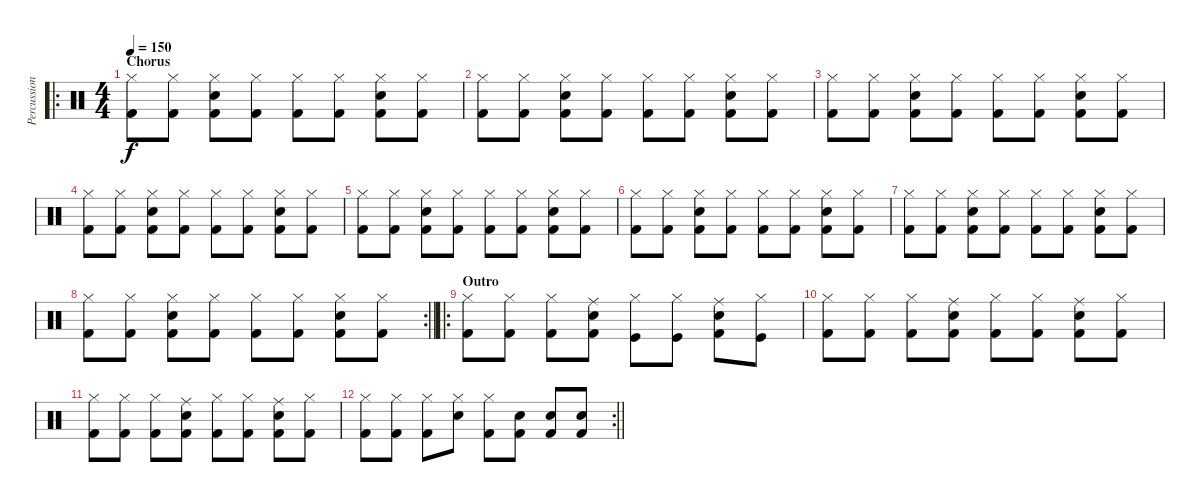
\track ("Percussion" "Percussion") {instrument percussion}
\staff {score}
\articulation defaults
\ro
\ts (4 4)
\section ("" "Chorus")
\tempo 150
\clef neutral
\ks c
("Kick (hit) 2" "Hi-Hat (closed)").8{dy f} ("Kick (hit) 2" "Hi-Hat (closed)").8 ("Kick (hit) 2" "Hi-Hat (closed)" "Snare (hit) 2").8 ("Kick (hit) 2" "Hi-Hat (closed)").8 ("Kick (hit) 2" "Hi-Hat (closed)").8 ("Kick (hit) 2" "Hi-Hat (closed)").8 ("Kick (hit) 2" "Hi-Hat (closed)" "Snare (hit) 2").8 ("Kick (hit) 2" "Hi-Hat (closed)").8 |
("Kick (hit) 2" "Hi-Hat (closed)").8 ("Kick (hit) 2" "Hi-Hat (closed)").8 ("Kick (hit) 2" "Hi-Hat (closed)" "Snare (hit) 2").8 ("Kick (hit) 2" "Hi-Hat (closed)").8 ("Kick (hit) 2" "Hi-Hat (closed)").8 ("Kick (hit) 2" "Hi-Hat (closed)").8 ("Kick (hit) 2" "Hi-Hat (closed)" "Snare (hit) 2").8 ("Kick (hit) 2" "Hi-Hat (closed)").8 |
("Kick (hit) 2" "Hi-Hat (closed)").8 ("Kick (hit) 2" "Hi-Hat (closed)").8 ("Kick (hit) 2" "Hi-Hat (closed)" "Snare (hit) 2").8 ("Kick (hit) 2" "Hi-Hat (closed)").8 ("Kick (hit) 2" "Hi-Hat (closed)").8 ("Kick (hit) 2" "Hi-Hat (closed)").8 ("Kick (hit) 2" "Hi-Hat (closed)" "Snare (hit) 2").8 ("Kick (hit) 2" "Hi-Hat (closed)").8 |
("Kick (hit) 2" "Hi-Hat (closed)").8 ("Kick (hit) 2" "Hi-Hat (closed)").8 ("Kick (hit) 2" "Hi-Hat (closed)" "Snare (hit) 2").8 ("Kick (hit) 2" "Hi-Hat (closed)").8 ("Kick (hit) 2" "Hi-Hat (closed)").8 ("Kick (hit) 2" "Hi-Hat (closed)").8 ("Kick (hit) 2" "Hi-Hat (closed)" "Snare (hit) 2").8 ("Kick (hit) 2" "Hi-Hat (closed)").8 |
("Kick (hit) 2" "Hi-Hat (closed)").8 ("Kick (hit) 2" "Hi-Hat (closed)").8 ("Kick (hit) 2" "Hi-Hat (closed)" "Snare (hit) 2").8 ("Kick (hit) 2" "Hi-Hat (closed)").8 ("Kick (hit) 2" "Hi-Hat (closed)").8 ("Kick (hit) 2" "Hi-Hat (closed)").8 ("Kick (hit) 2" "Hi-Hat (closed)" "Snare (hit) 2").8 ("Kick (hit) 2" "Hi-Hat (closed)").8 |
("Kick (hit) 2" "Hi-Hat (closed)").8 ("Kick (hit) 2" "Hi-Hat (closed)").8 ("Kick (hit) 2" "Hi-Hat (closed)" "Snare (hit) 2").8 ("Kick (hit) 2" "Hi-Hat (closed)").8 ("Kick (hit) 2" "Hi-Hat (closed)").8 ("Kick (hit) 2" "Hi-Hat (closed)").8 ("Kick (hit) 2" "Hi-Hat (closed)" "Snare (hit) 2").8 ("Kick (hit) 2" "Hi-Hat (closed)").8 |
("Kick (hit) 2" "Hi-Hat (closed)").8 ("Kick (hit) 2" "Hi-Hat (closed)").8 ("Kick (hit) 2" "Hi-Hat (closed)" "Snare (hit) 2").8 ("Kick (hit) 2" "Hi-Hat (closed)").8 ("Kick (hit) 2" "Hi-Hat (closed)").8 ("Kick (hit) 2" "Hi-Hat (closed)").8 ("Kick (hit) 2" "Hi-Hat (closed)" "Snare (hit) 2").8 ("Kick (hit) 2" "Hi-Hat (closed)").8 |
\rc 2
\barLineRight lightlight
("Kick (hit) 2" "Hi-Hat (closed)").8 ("Kick (hit) 2" "Hi-Hat (closed)").8 ("Kick (hit) 2" "Hi-Hat (closed)" "Snare (hit) 2").8 ("Kick (hit) 2" "Hi-Hat (closed)").8 ("Kick (hit) 2" "Hi-Hat (closed)").8 ("Kick (hit) 2" "Hi-Hat (closed)").8 ("Kick (hit) 2" "Hi-Hat (closed)" "Snare (hit) 2").8 ("Kick (hit) 2" "Hi-Hat (closed)").8 |
\ro
\section ("" "Outro")
("Kick (hit) 2" "Hi-Hat (closed)").8 ("Kick (hit) 2" "Hi-Hat (closed)").8 ("Kick (hit) 2" "Hi-Hat (closed)").8 ("Kick (hit) 2" "Ride (middle)" "Snare (hit) 2").8 ("Hi-Hat (closed)" "Kick (hit)").8 ("Hi-Hat (closed)" "Kick (hit)").8 ("Kick (hit) 2" "Ride (middle)" "Snare (hit) 2").8 ("Hi-Hat (closed)" "Kick (hit)").8 |
("Kick (hit) 2" "Hi-Hat (closed)").8 ("Kick (hit) 2" "Hi-Hat (closed)").8 ("Kick (hit) 2" "Hi-Hat (closed)").8 ("Kick (hit) 2" "Snare (hit) 2" "Ride (middle)").8 ("Kick (hit) 2" "Hi-Hat (closed)").8 ("Kick (hit) 2" "Hi-Hat (closed)").8 ("Kick (hit) 2" "Snare (hit) 2" "Ride (middle)").8 ("Kick (hit) 2" "Hi-Hat (closed)").8 |
("Kick (hit) 2" "Hi-Hat (closed)").8 ("Kick (hit) 2" "Hi-Hat (closed)").8 ("Kick (hit) 2" "Hi-Hat (closed)").8 ("Kick (hit) 2" "Snare (hit) 2" "Ride (middle)").8 ("Kick (hit) 2" "Hi-Hat (closed)").8 ("Kick (hit) 2" "Hi-Hat (closed)").8 ("Kick (hit) 2" "Snare (hit) 2" "Ride (middle)").8 ("Kick (hit) 2" "Hi-Hat (closed)").8 |
\rc 2
\barLineRight lightlight
("Kick (hit) 2" "Hi-Hat (closed)").8 ("Kick (hit) 2" "Hi-Hat (closed)").8 ("Kick (hit) 2" "Hi-Hat (closed)").8 ("Hi-Hat (closed)" "Snare (hit) 2").8 ("Kick (hit) 2" "Hi-Hat (closed)").8 ("Kick (hit) 2" "Snare (hit) 2").8 ("Kick (hit) 2" "Snare (hit) 2").8 ("Kick (hit) 2" "Snare (hit) 2").8
